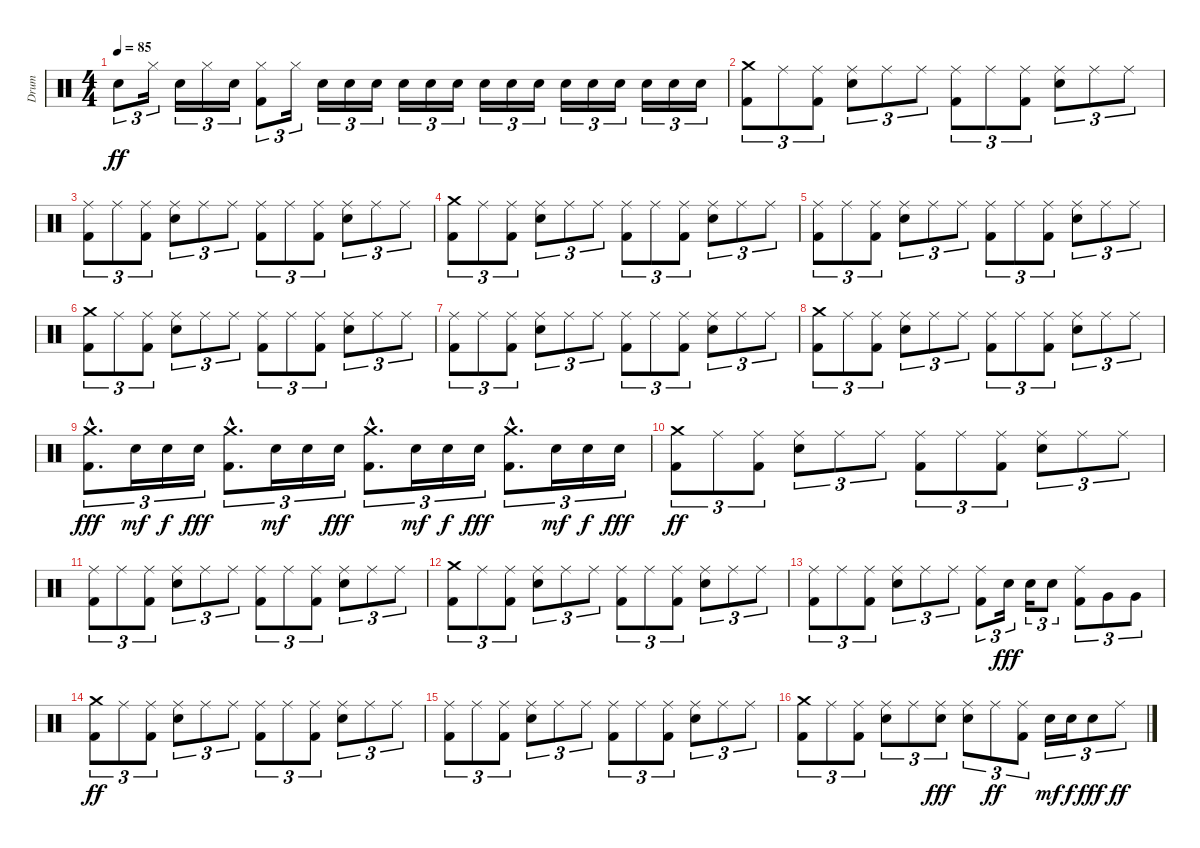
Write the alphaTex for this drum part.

\track ("Drum" "Drum") {instrument percussion}
\staff {score}
\articulation defaults
\ts (4 4)
\tempo 85
\clef neutral
\ks c "Snare (hit) 2".8{tu (3 2) dy ff} "Hi-Hat (closed)".16{tu (3 2)} "Snare (hit) 2".16{tu (3 2)} "Hi-Hat (closed)".16{tu (3 2)} "Snare (hit) 2".16{tu (3 2)}
("Hi-Hat (closed)" "Kick (hit) 2").8{tu (3 2)} "Hi-Hat (closed)".16{tu (3 2)} "Snare (hit) 2".16{tu (3 2)} "Snare (hit) 2".16{tu (3 2)} "Snare (hit) 2".16{tu (3 2)} "Snare (hit) 2".16{tu (3 2)} "Snare (hit) 2".16{tu (3 2)} "Snare (hit) 2".16{tu (3 2)} "Snare (hit) 2".16{tu (3 2)} "Snare (hit) 2".16{tu (3 2)} "Snare (hit) 2".16{tu (3 2)} "Snare (hit) 2".16{tu (3 2)} "Snare (hit) 2".16{tu (3 2)} "Snare (hit) 2".16{tu (3 2)} "Snare (hit) 2".16{tu (3 2)} "Snare (hit) 2".16{tu (3 2)} "Snare (hit) 2".16{tu (3 2)} |
("Crash medium (hit)" "Kick (hit) 2").8{tu (3 2)} "Ride (middle)".8{tu (3 2)} ("Ride (middle)" "Kick (hit) 2").8{tu (3 2)} ("Ride (middle)" "Snare (hit) 2").8{tu (3 2)} "Ride (middle)".8{tu (3 2)} "Ride (middle)".8{tu (3 2)} ("Ride (middle)" "Kick (hit) 2").8{tu (3 2)} "Ride (middle)".8{tu (3 2)} ("Ride (middle)" "Kick (hit) 2").8{tu (3 2)} ("Ride (middle)" "Snare (hit) 2").8{tu (3 2)} "Ride (middle)".8{tu (3 2)} "Ride (middle)".8{tu (3 2)} |
("Ride (middle)" "Kick (hit) 2").8{tu (3 2)} "Ride (middle)".8{tu (3 2)} ("Ride (middle)" "Kick (hit) 2").8{tu (3 2)} ("Ride (middle)" "Snare (hit) 2").8{tu (3 2)} "Ride (middle)".8{tu (3 2)} "Ride (middle)".8{tu (3 2)} ("Ride (middle)" "Kick (hit) 2").8{tu (3 2)} "Ride (middle)".8{tu (3 2)} ("Ride (middle)" "Kick (hit) 2").8{tu (3 2)} ("Ride (middle)" "Snare (hit) 2").8{tu (3 2)} "Ride (middle)".8{tu (3 2)} "Ride (middle)".8{tu (3 2)} |
("Crash medium (hit)" "Kick (hit) 2").8{tu (3 2)} "Ride (middle)".8{tu (3 2)} ("Ride (middle)" "Kick (hit) 2").8{tu (3 2)} ("Ride (middle)" "Snare (hit) 2").8{tu (3 2)} "Ride (middle)".8{tu (3 2)} "Ride (middle)".8{tu (3 2)} ("Ride (middle)" "Kick (hit) 2").8{tu (3 2)} "Ride (middle)".8{tu (3 2)} ("Ride (middle)" "Kick (hit) 2").8{tu (3 2)} ("Ride (middle)" "Snare (hit) 2").8{tu (3 2)} "Ride (middle)".8{tu (3 2)} "Ride (middle)".8{tu (3 2)} |
("Ride (middle)" "Kick (hit) 2").8{tu (3 2)} "Ride (middle)".8{tu (3 2)} ("Ride (middle)" "Kick (hit) 2").8{tu (3 2)} ("Ride (middle)" "Snare (hit) 2").8{tu (3 2)} "Ride (middle)".8{tu (3 2)} "Ride (middle)".8{tu (3 2)} ("Ride (middle)" "Kick (hit) 2").8{tu (3 2)} "Ride (middle)".8{tu (3 2)} ("Ride (middle)" "Kick (hit) 2").8{tu (3 2)} ("Ride (middle)" "Snare (hit) 2").8{tu (3 2)} "Ride (middle)".8{tu (3 2)} "Ride (middle)".8{tu (3 2)} |
("Crash medium (hit)" "Kick (hit) 2").8{tu (3 2)} "Ride (middle)".8{tu (3 2)} ("Ride (middle)" "Kick (hit) 2").8{tu (3 2)} ("Ride (middle)" "Snare (hit) 2").8{tu (3 2)} "Ride (middle)".8{tu (3 2)} "Ride (middle)".8{tu (3 2)} ("Ride (middle)" "Kick (hit) 2").8{tu (3 2)} "Ride (middle)".8{tu (3 2)} ("Ride (middle)" "Kick (hit) 2").8{tu (3 2)} ("Ride (middle)" "Snare (hit) 2").8{tu (3 2)} "Ride (middle)".8{tu (3 2)} "Ride (middle)".8{tu (3 2)} |
("Ride (middle)" "Kick (hit) 2").8{tu (3 2)} "Ride (middle)".8{tu (3 2)} ("Ride (middle)" "Kick (hit) 2").8{tu (3 2)} ("Ride (middle)" "Snare (hit) 2").8{tu (3 2)} "Ride (middle)".8{tu (3 2)} "Ride (middle)".8{tu (3 2)} ("Ride (middle)" "Kick (hit) 2").8{tu (3 2)} "Ride (middle)".8{tu (3 2)} ("Ride (middle)" "Kick (hit) 2").8{tu (3 2)} ("Ride (middle)" "Snare (hit) 2").8{tu (3 2)} "Ride (middle)".8{tu (3 2)} "Ride (middle)".8{tu (3 2)} |
("Crash medium (hit)" "Kick (hit) 2").8{tu (3 2)} "Ride (middle)".8{tu (3 2)} ("Ride (middle)" "Kick (hit) 2").8{tu (3 2)} ("Ride (middle)" "Snare (hit) 2").8{tu (3 2)} "Ride (middle)".8{tu (3 2)} "Ride (middle)".8{tu (3 2)} ("Ride (middle)" "Kick (hit) 2").8{tu (3 2)} "Ride (middle)".8{tu (3 2)} ("Ride (middle)" "Kick (hit) 2").8{tu (3 2)} ("Ride (middle)" "Snare (hit) 2").8{tu (3 2)} "Ride (middle)".8{tu (3 2)} "Ride (middle)".8{tu (3 2)} |
("Crash medium (hit)"{hac} "Kick (hit) 2"{hac}).8{d tu (3 2) dy fff} "Snare (hit) 2".16{tu (3 2) dy mf} "Snare (hit) 2".16{tu (3 2) dy f} "Snare (hit) 2".16{tu (3 2) dy fff} ("Crash medium (hit)"{hac} "Kick (hit) 2"{hac}).8{d tu (3 2)} "Snare (hit) 2".16{tu (3 2) dy mf} "Snare (hit) 2".16{tu (3 2)} "Snare (hit) 2".16{tu (3 2) dy fff} ("Crash medium (hit)"{hac} "Kick (hit) 2"{hac}).8{d tu (3 2)} "Snare (hit) 2".16{tu (3 2) dy mf} "Snare (hit) 2".16{tu (3 2) dy f} "Snare (hit) 2".16{tu (3 2) dy fff} ("Crash medium (hit)"{hac} "Kick (hit) 2"{hac}).8{d tu (3 2)} "Snare (hit) 2".16{tu (3 2) dy mf} "Snare (hit) 2".16{tu (3 2) dy f} "Snare (hit) 2".16{tu (3 2) dy fff} |
("Crash medium (hit)" "Kick (hit) 2").8{tu (3 2) dy ff} "Ride (middle)".8{tu (3 2)} ("Ride (middle)" "Kick (hit) 2").8{tu (3 2)} ("Ride (middle)" "Snare (hit) 2").8{tu (3 2)} "Ride (middle)".8{tu (3 2)} "Ride (middle)".8{tu (3 2)} ("Ride (middle)" "Kick (hit) 2").8{tu (3 2)} "Ride (middle)".8{tu (3 2)} ("Ride (middle)" "Kick (hit) 2").8{tu (3 2)} ("Ride (middle)" "Snare (hit) 2").8{tu (3 2)} "Ride (middle)".8{tu (3 2)} "Ride (middle)".8{tu (3 2)} |
("Ride (middle)" "Kick (hit) 2").8{tu (3 2)} "Ride (middle)".8{tu (3 2)} ("Ride (middle)" "Kick (hit) 2").8{tu (3 2)} ("Ride (middle)" "Snare (hit) 2").8{tu (3 2)} "Ride (middle)".8{tu (3 2)} "Ride (middle)".8{tu (3 2)} ("Ride (middle)" "Kick (hit) 2").8{tu (3 2)} "Ride (middle)".8{tu (3 2)} ("Ride (middle)" "Kick (hit) 2").8{tu (3 2)} ("Ride (middle)" "Snare (hit) 2").8{tu (3 2)} "Ride (middle)".8{tu (3 2)} "Ride (middle)".8{tu (3 2)} |
("Crash medium (hit)" "Kick (hit) 2").8{tu (3 2)} "Ride (middle)".8{tu (3 2)} ("Ride (middle)" "Kick (hit) 2").8{tu (3 2)} ("Ride (middle)" "Snare (hit) 2").8{tu (3 2)} "Ride (middle)".8{tu (3 2)} "Ride (middle)".8{tu (3 2)} ("Ride (middle)" "Kick (hit) 2").8{tu (3 2)} "Ride (middle)".8{tu (3 2)} ("Ride (middle)" "Kick (hit) 2").8{tu (3 2)} ("Ride (middle)" "Snare (hit) 2").8{tu (3 2)} "Ride (middle)".8{tu (3 2)} "Ride (middle)".8{tu (3 2)} |
("Ride (middle)" "Kick (hit) 2").8{tu (3 2)} "Ride (middle)".8{tu (3 2)} ("Ride (middle)" "Kick (hit) 2").8{tu (3 2)} ("Ride (middle)" "Snare (hit) 2").8{tu (3 2)} "Ride (middle)".8{tu (3 2)} "Ride (middle)".8{tu (3 2)} ("Ride (middle)" "Kick (hit) 2").8{tu (3 2)} "Snare (hit) 2".16{tu (3 2) dy fff} "Snare (hit) 2".16{tu (3 2)} "Snare (hit) 2".8{tu (3 2)} ("Ride (middle)" "Kick (hit) 2").8{tu (3 2)} "Very Low Tom (hit)".8{tu (3 2)} "Very Low Tom (hit)".8{tu (3 2)} |
("Crash medium (hit)" "Kick (hit) 2").8{tu (3 2) dy ff} "Ride (middle)".8{tu (3 2)} ("Ride (middle)" "Kick (hit) 2").8{tu (3 2)} ("Ride (middle)" "Snare (hit) 2").8{tu (3 2)} "Ride (middle)".8{tu (3 2)} "Ride (middle)".8{tu (3 2)} ("Ride (middle)" "Kick (hit) 2").8{tu (3 2)} "Ride (middle)".8{tu (3 2)} ("Ride (middle)" "Kick (hit) 2").8{tu (3 2)} ("Ride (middle)" "Snare (hit) 2").8{tu (3 2)} "Ride (middle)".8{tu (3 2)} "Ride (middle)".8{tu (3 2)} |
("Ride (middle)" "Kick (hit) 2").8{tu (3 2)} "Ride (middle)".8{tu (3 2)} ("Ride (middle)" "Kick (hit) 2").8{tu (3 2)} ("Ride (middle)" "Snare (hit) 2").8{tu (3 2)} "Ride (middle)".8{tu (3 2)} "Ride (middle)".8{tu (3 2)} ("Ride (middle)" "Kick (hit) 2").8{tu (3 2)} "Ride (middle)".8{tu (3 2)} ("Ride (middle)" "Kick (hit) 2").8{tu (3 2)} ("Ride (middle)" "Snare (hit) 2").8{tu (3 2)} "Ride (middle)".8{tu (3 2)} "Ride (middle)".8{tu (3 2)} |
("Crash medium (hit)" "Kick (hit) 2").8{tu (3 2)} "Ride (middle)".8{tu (3 2)} ("Ride (middle)" "Kick (hit) 2").8{tu (3 2)} ("Ride (middle)" "Snare (hit) 2").8{tu (3 2)} "Ride (middle)".8{tu (3 2)} ("Ride (middle)" "Snare (hit) 2").8{tu (3 2) dy fff} ("Ride (middle)" "Snare (hit) 2").8{tu (3 2)} "Ride (middle)".8{tu (3 2) dy ff} ("Ride (middle)" "Kick (hit) 2").8{tu (3 2)} "Snare (hit) 2".16{tu (3 2) dy mf} "Snare (hit) 2".16{tu (3 2) dy f} "Snare (hit) 2".8{tu (3 2) dy fff} "Ride (middle)".8{tu (3 2) dy ff}
